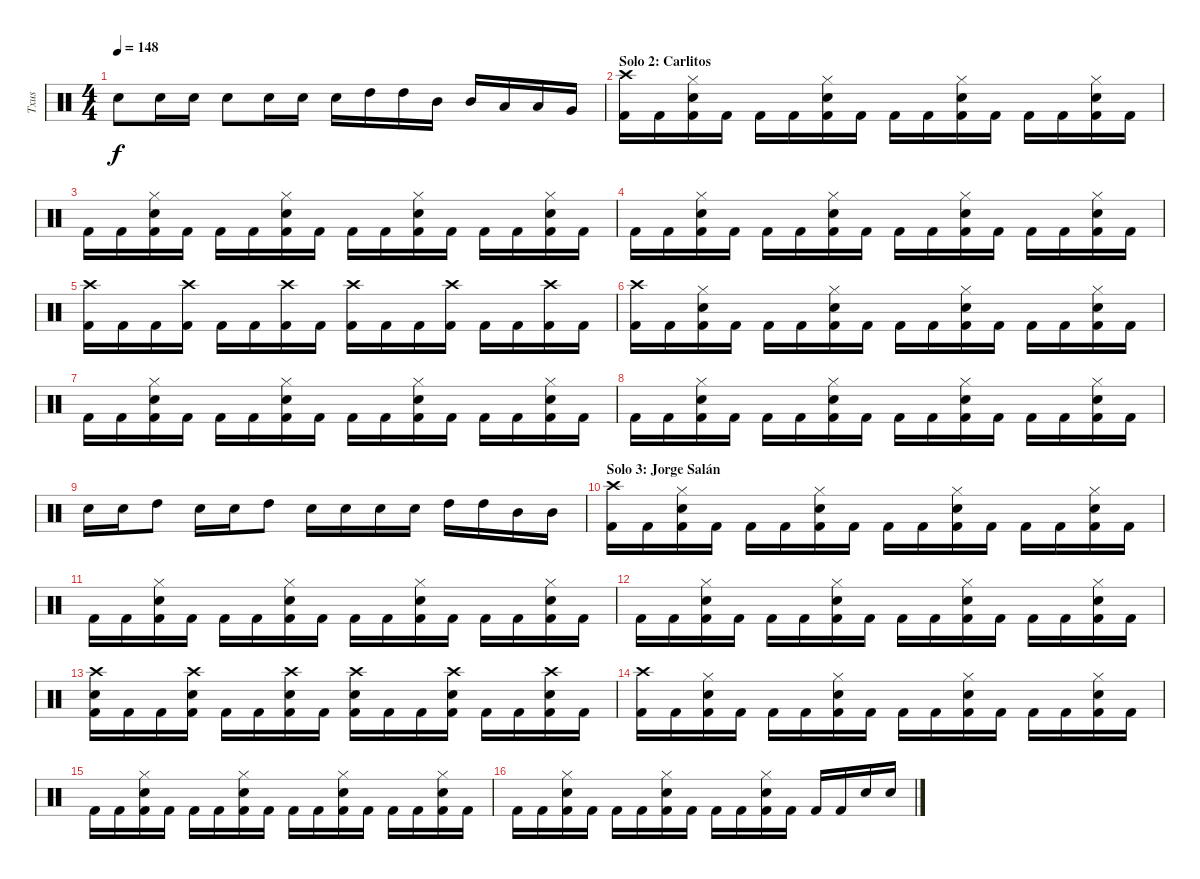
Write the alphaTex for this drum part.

\track ("Txus" "Txus") {instrument percussion}
\staff {score}
\articulation defaults
\ts (4 4)
\tempo 148
\clef neutral
\ks c "Electric Snare (hit)".8{dy f} "Electric Snare (hit)".16 "Electric Snare (hit)".16 "Electric Snare (hit)".8 "Electric Snare (hit)".16 "Electric Snare (hit)".16 "Electric Snare (hit)".16 "High Tom (hit)".16 "High Tom (hit)".16 "Mid Tom (hit)".16 "Mid Tom (hit)".16 "Low Tom (hit)".16 "Low Tom (hit)".16 "Very Low Tom (hit)".16
|
\section ("" "Solo 2: Carlitos")
("Kick (hit) 2" "Crash high (hit)").16 "Kick (hit) 2".16 ("Kick (hit) 2" "Electric Snare (hit)" "Hi-Hat (closed)").16 "Kick (hit) 2".16 "Kick (hit) 2".16 "Kick (hit) 2".16 ("Kick (hit) 2" "Electric Snare (hit)" "Hi-Hat (closed)").16 "Kick (hit) 2".16 "Kick (hit) 2".16 "Kick (hit) 2".16 ("Kick (hit) 2" "Electric Snare (hit)" "Hi-Hat (closed)").16 "Kick (hit) 2".16 "Kick (hit) 2".16 "Kick (hit) 2".16 ("Kick (hit) 2" "Electric Snare (hit)" "Hi-Hat (closed)").16 "Kick (hit) 2".16 |
"Kick (hit) 2".16 "Kick (hit) 2".16 ("Kick (hit) 2" "Electric Snare (hit)" "Hi-Hat (closed)").16 "Kick (hit) 2".16 "Kick (hit) 2".16 "Kick (hit) 2".16 ("Kick (hit) 2" "Electric Snare (hit)" "Hi-Hat (closed)").16 "Kick (hit) 2".16 "Kick (hit) 2".16 "Kick (hit) 2".16 ("Kick (hit) 2" "Electric Snare (hit)" "Hi-Hat (closed)").16 "Kick (hit) 2".16 "Kick (hit) 2".16 "Kick (hit) 2".16 ("Kick (hit) 2" "Electric Snare (hit)" "Hi-Hat (closed)").16 "Kick (hit) 2".16 |
"Kick (hit) 2".16 "Kick (hit) 2".16 ("Kick (hit) 2" "Electric Snare (hit)" "Hi-Hat (closed)").16 "Kick (hit) 2".16 "Kick (hit) 2".16 "Kick (hit) 2".16 ("Kick (hit) 2" "Electric Snare (hit)" "Hi-Hat (closed)").16 "Kick (hit) 2".16 "Kick (hit) 2".16 "Kick (hit) 2".16 ("Kick (hit) 2" "Electric Snare (hit)" "Hi-Hat (closed)").16 "Kick (hit) 2".16 "Kick (hit) 2".16 "Kick (hit) 2".16 ("Kick (hit) 2" "Electric Snare (hit)" "Hi-Hat (closed)").16 "Kick (hit) 2".16 |
("Kick (hit) 2" "Crash high (hit)").16 "Kick (hit) 2".16 "Kick (hit) 2".16 ("Kick (hit) 2" "Crash high (hit)").16 "Kick (hit) 2".16 "Kick (hit) 2".16 ("Kick (hit) 2" "Crash high (hit)").16 "Kick (hit) 2".16 ("Kick (hit) 2" "Crash high (hit)").16 "Kick (hit) 2".16 "Kick (hit) 2".16 ("Kick (hit) 2" "Crash high (hit)").16 "Kick (hit) 2".16 "Kick (hit) 2".16 ("Kick (hit) 2" "Crash high (hit)").16 "Kick (hit) 2".16 |
("Kick (hit) 2" "Crash high (hit)").16 "Kick (hit) 2".16 ("Kick (hit) 2" "Electric Snare (hit)" "Hi-Hat (closed)").16 "Kick (hit) 2".16 "Kick (hit) 2".16 "Kick (hit) 2".16 ("Kick (hit) 2" "Electric Snare (hit)" "Hi-Hat (closed)").16 "Kick (hit) 2".16 "Kick (hit) 2".16 "Kick (hit) 2".16 ("Kick (hit) 2" "Electric Snare (hit)" "Hi-Hat (closed)").16 "Kick (hit) 2".16 "Kick (hit) 2".16 "Kick (hit) 2".16 ("Kick (hit) 2" "Electric Snare (hit)" "Hi-Hat (closed)").16 "Kick (hit) 2".16 |
"Kick (hit) 2".16 "Kick (hit) 2".16 ("Kick (hit) 2" "Electric Snare (hit)" "Hi-Hat (closed)").16 "Kick (hit) 2".16 "Kick (hit) 2".16 "Kick (hit) 2".16 ("Kick (hit) 2" "Electric Snare (hit)" "Hi-Hat (closed)").16 "Kick (hit) 2".16 "Kick (hit) 2".16 "Kick (hit) 2".16 ("Kick (hit) 2" "Electric Snare (hit)" "Hi-Hat (closed)").16 "Kick (hit) 2".16 "Kick (hit) 2".16 "Kick (hit) 2".16 ("Kick (hit) 2" "Electric Snare (hit)" "Hi-Hat (closed)").16 "Kick (hit) 2".16 |
"Kick (hit) 2".16 "Kick (hit) 2".16 ("Kick (hit) 2" "Electric Snare (hit)" "Hi-Hat (closed)").16 "Kick (hit) 2".16 "Kick (hit) 2".16 "Kick (hit) 2".16 ("Kick (hit) 2" "Electric Snare (hit)" "Hi-Hat (closed)").16 "Kick (hit) 2".16 "Kick (hit) 2".16 "Kick (hit) 2".16 ("Kick (hit) 2" "Electric Snare (hit)" "Hi-Hat (closed)").16 "Kick (hit) 2".16 "Kick (hit) 2".16 "Kick (hit) 2".16 ("Kick (hit) 2" "Electric Snare (hit)" "Hi-Hat (closed)").16 "Kick (hit) 2".16 |
"Electric Snare (hit)".16 "Electric Snare (hit)".16 "High Tom (hit)".8 "Electric Snare (hit)".16 "Electric Snare (hit)".16 "High Tom (hit)".8 "Electric Snare (hit)".16 "Electric Snare (hit)".16 "Electric Snare (hit)".16 "Electric Snare (hit)".16 "High Tom (hit)".16 "High Tom (hit)".16 "Mid Tom (hit)".16 "Mid Tom (hit)".16 |
\section ("" "Solo 3: Jorge Salán")
("Kick (hit) 2" "Crash high (hit)").16 "Kick (hit) 2".16 ("Kick (hit) 2" "Electric Snare (hit)" "Hi-Hat (closed)").16 "Kick (hit) 2".16 "Kick (hit) 2".16 "Kick (hit) 2".16 ("Kick (hit) 2" "Electric Snare (hit)" "Hi-Hat (closed)").16 "Kick (hit) 2".16 "Kick (hit) 2".16 "Kick (hit) 2".16 ("Kick (hit) 2" "Electric Snare (hit)" "Hi-Hat (closed)").16 "Kick (hit) 2".16 "Kick (hit) 2".16 "Kick (hit) 2".16 ("Kick (hit) 2" "Electric Snare (hit)" "Hi-Hat (closed)").16 "Kick (hit) 2".16 |
"Kick (hit) 2".16 "Kick (hit) 2".16 ("Kick (hit) 2" "Electric Snare (hit)" "Hi-Hat (closed)").16 "Kick (hit) 2".16 "Kick (hit) 2".16 "Kick (hit) 2".16 ("Kick (hit) 2" "Electric Snare (hit)" "Hi-Hat (closed)").16 "Kick (hit) 2".16 "Kick (hit) 2".16 "Kick (hit) 2".16 ("Kick (hit) 2" "Electric Snare (hit)" "Hi-Hat (closed)").16 "Kick (hit) 2".16 "Kick (hit) 2".16 "Kick (hit) 2".16 ("Kick (hit) 2" "Electric Snare (hit)" "Hi-Hat (closed)").16 "Kick (hit) 2".16 |
"Kick (hit) 2".16 "Kick (hit) 2".16 ("Kick (hit) 2" "Electric Snare (hit)" "Hi-Hat (closed)").16 "Kick (hit) 2".16 "Kick (hit) 2".16 "Kick (hit) 2".16 ("Kick (hit) 2" "Electric Snare (hit)" "Hi-Hat (closed)").16 "Kick (hit) 2".16 "Kick (hit) 2".16 "Kick (hit) 2".16 ("Kick (hit) 2" "Electric Snare (hit)" "Hi-Hat (closed)").16 "Kick (hit) 2".16 "Kick (hit) 2".16 "Kick (hit) 2".16 ("Kick (hit) 2" "Electric Snare (hit)" "Hi-Hat (closed)").16 "Kick (hit) 2".16 |
("Kick (hit) 2" "Electric Snare (hit)" "Crash high (hit)").16 "Kick (hit) 2".16 "Kick (hit) 2".16 ("Kick (hit) 2" "Electric Snare (hit)" "Crash high (hit)").16 "Kick (hit) 2".16 "Kick (hit) 2".16 ("Kick (hit) 2" "Electric Snare (hit)" "Crash high (hit)").16 "Kick (hit) 2".16 ("Kick (hit) 2" "Electric Snare (hit)" "Crash high (hit)").16 "Kick (hit) 2".16 "Kick (hit) 2".16 ("Kick (hit) 2" "Electric Snare (hit)" "Crash high (hit)").16 "Kick (hit) 2".16 "Kick (hit) 2".16 ("Kick (hit) 2" "Electric Snare (hit)" "Crash high (hit)").16 "Kick (hit) 2".16 |
("Kick (hit) 2" "Crash high (hit)").16 "Kick (hit) 2".16 ("Kick (hit) 2" "Electric Snare (hit)" "Hi-Hat (closed)").16 "Kick (hit) 2".16 "Kick (hit) 2".16 "Kick (hit) 2".16 ("Kick (hit) 2" "Electric Snare (hit)" "Hi-Hat (closed)").16 "Kick (hit) 2".16 "Kick (hit) 2".16 "Kick (hit) 2".16 ("Kick (hit) 2" "Electric Snare (hit)" "Hi-Hat (closed)").16 "Kick (hit) 2".16 "Kick (hit) 2".16 "Kick (hit) 2".16 ("Kick (hit) 2" "Electric Snare (hit)" "Hi-Hat (closed)").16 "Kick (hit) 2".16 |
"Kick (hit) 2".16 "Kick (hit) 2".16 ("Kick (hit) 2" "Electric Snare (hit)" "Hi-Hat (closed)").16 "Kick (hit) 2".16 "Kick (hit) 2".16 "Kick (hit) 2".16 ("Kick (hit) 2" "Electric Snare (hit)" "Hi-Hat (closed)").16 "Kick (hit) 2".16 "Kick (hit) 2".16 "Kick (hit) 2".16 ("Kick (hit) 2" "Electric Snare (hit)" "Hi-Hat (closed)").16 "Kick (hit) 2".16 "Kick (hit) 2".16 "Kick (hit) 2".16 ("Kick (hit) 2" "Electric Snare (hit)" "Hi-Hat (closed)").16 "Kick (hit) 2".16 |
"Kick (hit) 2".16 "Kick (hit) 2".16 ("Kick (hit) 2" "Electric Snare (hit)" "Hi-Hat (closed)").16 "Kick (hit) 2".16 "Kick (hit) 2".16 "Kick (hit) 2".16 ("Kick (hit) 2" "Electric Snare (hit)" "Hi-Hat (closed)").16 "Kick (hit) 2".16 "Kick (hit) 2".16 "Kick (hit) 2".16 ("Kick (hit) 2" "Electric Snare (hit)" "Hi-Hat (closed)").16 "Kick (hit) 2".16 "Kick (hit) 2".16 "Kick (hit) 2".16 "Electric Snare (hit)".16 "Electric Snare (hit)".16
